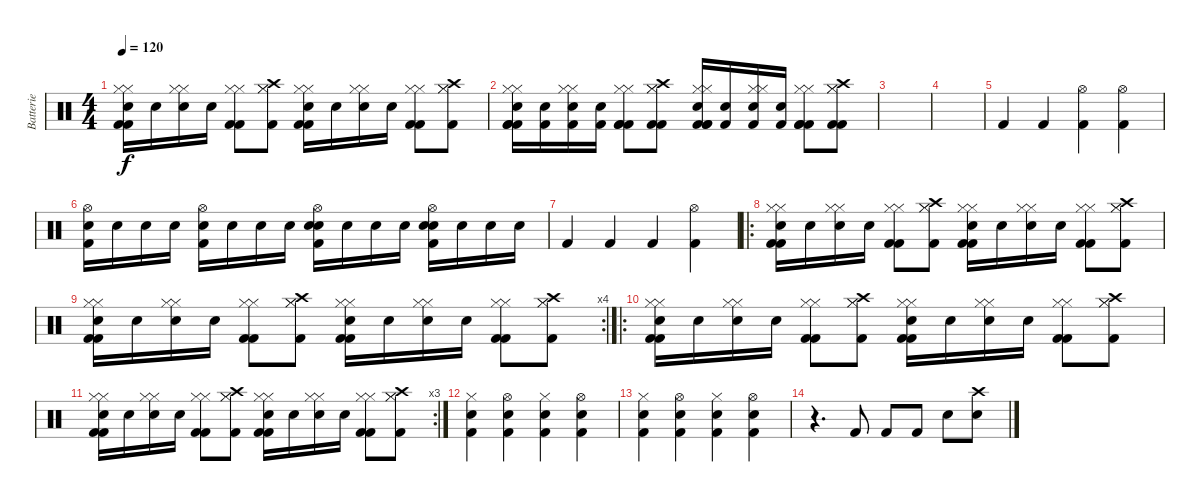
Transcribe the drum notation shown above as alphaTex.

\track ("Batterie" "Batterie") {instrument percussion}
\staff {score}
\articulation defaults
\ts (4 4)
\tempo 120
\clef neutral
\ks c
("Snare (hit) 2" "Kick (hit) 2" "Kick (hit) 2" "Hi-Hat (closed)" "Hi-Hat (closed)").16{dy f} "Snare (hit) 2".16 ("Snare (hit) 2" "Hi-Hat (closed)" "Hi-Hat (closed)").16 "Snare (hit) 2".16 ("Kick (hit) 2" "Kick (hit) 2" "Hi-Hat (closed)" "Hi-Hat (closed)").8 ("Crash high (hit)" "Kick (hit) 2" "Hi-Hat (closed)" "Hi-Hat (closed)").8 ("Electric Snare (hit)" "Kick (hit) 2" "Kick (hit) 2" "Hi-Hat (closed)" "Hi-Hat (closed)").16 "Electric Snare (hit)".16 ("Electric Snare (hit)" "Hi-Hat (closed)" "Hi-Hat (closed)").16 "Electric Snare (hit)".16 ("Kick (hit) 2" "Kick (hit) 2" "Hi-Hat (closed)" "Hi-Hat (closed)").8 ("Crash high (hit)" "Kick (hit) 2" "Hi-Hat (closed)" "Hi-Hat (closed)").8 |
("Snare (hit) 2" "Kick (hit) 2" "Kick (hit) 2" "Hi-Hat (closed)" "Hi-Hat (closed)" "Kick (hit) 2").16 ("Snare (hit) 2" "Kick (hit) 2").16 ("Snare (hit) 2" "Hi-Hat (closed)" "Hi-Hat (closed)" "Kick (hit) 2").16 ("Snare (hit) 2" "Kick (hit) 2").16 ("Kick (hit) 2" "Kick (hit) 2" "Hi-Hat (closed)" "Hi-Hat (closed)" "Kick (hit) 2").8 ("Crash high (hit)" "Kick (hit) 2" "Hi-Hat (closed)" "Hi-Hat (closed)" "Kick (hit) 2").8 ("Electric Snare (hit)" "Kick (hit) 2" "Kick (hit) 2" "Hi-Hat (closed)" "Hi-Hat (closed)" "Kick (hit) 2").16 ("Electric Snare (hit)" "Kick (hit) 2").16 ("Electric Snare (hit)" "Hi-Hat (closed)" "Hi-Hat (closed)" "Kick (hit) 2").16 ("Electric Snare (hit)" "Kick (hit) 2").16 ("Kick (hit) 2" "Kick (hit) 2" "Hi-Hat (closed)" "Hi-Hat (closed)" "Kick (hit) 2").8 ("Crash high (hit)" "Kick (hit) 2" "Hi-Hat (closed)" "Hi-Hat (closed)" "Kick (hit) 2").8 |
|
|
"Kick (hit) 2".4 "Kick (hit) 2".4 ("Hi-Hat (open)" "Kick (hit) 2").4 ("Hi-Hat (open)" "Kick (hit) 2").4 |
("Hi-Hat (open)" "Snare (hit) 2" "Kick (hit) 2").16 "Snare (hit) 2".16 "Snare (hit) 2".16 "Snare (hit) 2".16 ("Hi-Hat (open)" "Snare (hit) 2" "Kick (hit) 2").16 "Snare (hit) 2".16 "Snare (hit) 2".16 "Snare (hit) 2".16 ("Hi-Hat (open)" "Electric Snare (hit)" "Snare (hit) 2" "Kick (hit) 2").16 "Snare (hit) 2".16 "Snare (hit) 2".16 "Snare (hit) 2".16 ("Hi-Hat (open)" "Electric Snare (hit)" "Snare (hit) 2" "Kick (hit) 2").16 "Snare (hit) 2".16 "Snare (hit) 2".16 "Snare (hit) 2".16 |
"Kick (hit) 2".4 "Kick (hit) 2".4 "Kick (hit) 2".4 ("Hi-Hat (open)" "Kick (hit) 2").4 |
\ro
("Snare (hit) 2" "Kick (hit) 2" "Kick (hit) 2" "Hi-Hat (closed)" "Hi-Hat (closed)").16 "Snare (hit) 2".16 ("Snare (hit) 2" "Hi-Hat (closed)" "Hi-Hat (closed)").16 "Snare (hit) 2".16 ("Kick (hit) 2" "Kick (hit) 2" "Hi-Hat (closed)" "Hi-Hat (closed)").8 ("Crash high (hit)" "Kick (hit) 2" "Hi-Hat (closed)" "Hi-Hat (closed)").8 ("Electric Snare (hit)" "Kick (hit) 2" "Kick (hit) 2" "Hi-Hat (closed)" "Hi-Hat (closed)").16 "Electric Snare (hit)".16 ("Electric Snare (hit)" "Hi-Hat (closed)" "Hi-Hat (closed)").16 "Electric Snare (hit)".16 ("Kick (hit) 2" "Kick (hit) 2" "Hi-Hat (closed)" "Hi-Hat (closed)").8 ("Crash high (hit)" "Kick (hit) 2" "Hi-Hat (closed)" "Hi-Hat (closed)").8 |
\rc 4
("Snare (hit) 2" "Kick (hit) 2" "Kick (hit) 2" "Hi-Hat (closed)" "Hi-Hat (closed)").16 "Snare (hit) 2".16 ("Snare (hit) 2" "Hi-Hat (closed)" "Hi-Hat (closed)").16 "Snare (hit) 2".16 ("Kick (hit) 2" "Kick (hit) 2" "Hi-Hat (closed)" "Hi-Hat (closed)").8 ("Crash high (hit)" "Kick (hit) 2" "Hi-Hat (closed)" "Hi-Hat (closed)").8 ("Electric Snare (hit)" "Kick (hit) 2" "Kick (hit) 2" "Hi-Hat (closed)" "Hi-Hat (closed)").16 "Electric Snare (hit)".16 ("Electric Snare (hit)" "Hi-Hat (closed)" "Hi-Hat (closed)").16 "Electric Snare (hit)".16 ("Kick (hit) 2" "Kick (hit) 2" "Hi-Hat (closed)" "Hi-Hat (closed)").8 ("Crash high (hit)" "Kick (hit) 2" "Hi-Hat (closed)" "Hi-Hat (closed)").8 |
\ro
("Snare (hit) 2" "Kick (hit) 2" "Kick (hit) 2" "Hi-Hat (closed)" "Hi-Hat (closed)").16 "Snare (hit) 2".16 ("Snare (hit) 2" "Hi-Hat (closed)" "Hi-Hat (closed)").16 "Snare (hit) 2".16 ("Kick (hit) 2" "Kick (hit) 2" "Hi-Hat (closed)" "Hi-Hat (closed)").8 ("Crash high (hit)" "Kick (hit) 2" "Hi-Hat (closed)" "Hi-Hat (closed)").8 ("Electric Snare (hit)" "Kick (hit) 2" "Kick (hit) 2" "Hi-Hat (closed)" "Hi-Hat (closed)").16 "Electric Snare (hit)".16 ("Electric Snare (hit)" "Hi-Hat (closed)" "Hi-Hat (closed)").16 "Electric Snare (hit)".16 ("Kick (hit) 2" "Kick (hit) 2" "Hi-Hat (closed)" "Hi-Hat (closed)").8 ("Crash high (hit)" "Kick (hit) 2" "Hi-Hat (closed)" "Hi-Hat (closed)").8 |
\rc 3
("Snare (hit) 2" "Kick (hit) 2" "Kick (hit) 2" "Hi-Hat (closed)" "Hi-Hat (closed)").16 "Snare (hit) 2".16 ("Snare (hit) 2" "Hi-Hat (closed)" "Hi-Hat (closed)").16 "Snare (hit) 2".16 ("Kick (hit) 2" "Kick (hit) 2" "Hi-Hat (closed)" "Hi-Hat (closed)").8 ("Crash high (hit)" "Kick (hit) 2" "Hi-Hat (closed)" "Hi-Hat (closed)").8 ("Electric Snare (hit)" "Kick (hit) 2" "Kick (hit) 2" "Hi-Hat (closed)" "Hi-Hat (closed)").16 "Electric Snare (hit)".16 ("Electric Snare (hit)" "Hi-Hat (closed)" "Hi-Hat (closed)").16 "Electric Snare (hit)".16 ("Kick (hit) 2" "Kick (hit) 2" "Hi-Hat (closed)" "Hi-Hat (closed)").8 ("Crash high (hit)" "Kick (hit) 2" "Hi-Hat (closed)" "Hi-Hat (closed)").8 |
("Hi-Hat (closed)" "Kick (hit) 2" "Snare (hit) 2").4 ("Hi-Hat (open)" "Kick (hit) 2" "Electric Snare (hit)").4 ("Hi-Hat (closed)" "Kick (hit) 2" "Snare (hit) 2").4 ("Hi-Hat (open)" "Kick (hit) 2" "Electric Snare (hit)").4 |
("Hi-Hat (closed)" "Kick (hit) 2" "Snare (hit) 2").4 ("Hi-Hat (open)" "Kick (hit) 2" "Electric Snare (hit)").4 ("Hi-Hat (closed)" "Kick (hit) 2" "Snare (hit) 2").4 ("Hi-Hat (open)" "Kick (hit) 2" "Electric Snare (hit)").4 |
r.4{d} "Kick (hit) 2".8 "Kick (hit) 2".8 "Kick (hit) 2".8 "Snare (hit) 2".8 ("Crash high (hit)" "Electric Snare (hit)").8
